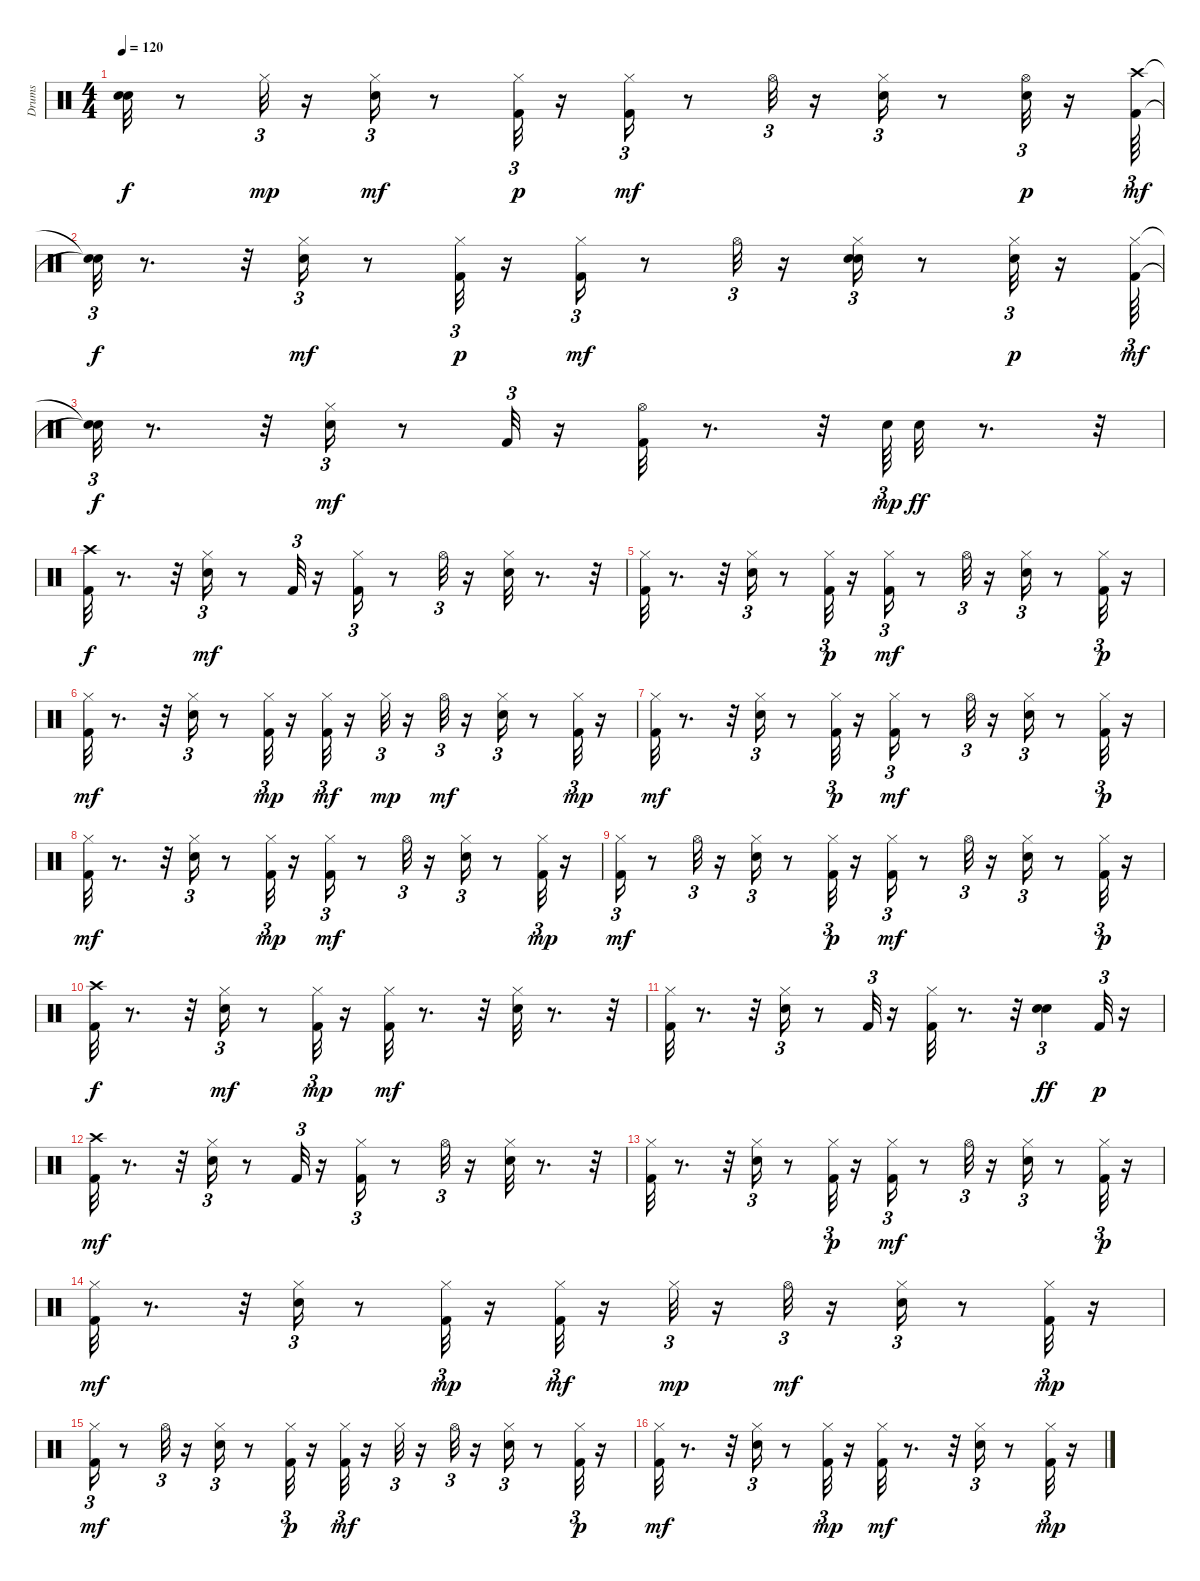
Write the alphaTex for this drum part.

\track ("Drums" "Drums") {instrument percussion}
\staff {score}
\articulation defaults
\ts (4 4)
\tempo 120
\clef neutral
\ks c
("Snare (hit)"{t} "Snare (hit)"{t}).32{dy f} r.8 "Hi-Hat (closed)".32{tu (3 2) dy mp} r.16 ("Electric Snare (hit)" "Hi-Hat (closed)").16{tu (3 2) dy mf} r.8 ("Kick (hit) 2" "Hi-Hat (closed)").32{tu (3 2) dy p} r.16 ("Kick (hit) 2" "Hi-Hat (closed)").16{tu (3 2) dy mf} r.8 "Hi-Hat (open)".32{tu (3 2)} r.16 ("Electric Snare (hit)" "Hi-Hat (closed)").16{tu (3 2)} r.8 ("Electric Snare (hit)" "Hi-Hat (open)").32{tu (3 2) dy p} r.16 ("Kick (hit) 2" "Crash high (hit)").64{tu (3 2) dy mf} |
("Snare (hit)"{t} "Snare (hit)"{t}).32{tu (3 2) dy f} r.8{d} r.32 ("Electric Snare (hit)" "Hi-Hat (closed)").16{tu (3 2) dy mf} r.8 ("Kick (hit) 2" "Hi-Hat (closed)").32{tu (3 2) dy p} r.16 ("Kick (hit) 2" "Hi-Hat (closed)").16{tu (3 2) dy mf} r.8 "Hi-Hat (open)".32{tu (3 2)} r.16 ("Hand Clap (hit)" "Electric Snare (hit)" "Hi-Hat (closed)").16{tu (3 2)} r.8 ("Hand Clap (hit)" "Hi-Hat (closed)").32{tu (3 2) dy p} r.16 ("Kick (hit) 2" "Hi-Hat (closed)").64{tu (3 2) dy mf} |
("Snare (hit)"{t} "Snare (hit)"{t}).32{tu (3 2) dy f} r.8{d} r.32 ("Electric Snare (hit)" "Hi-Hat (closed)").16{tu (3 2) dy mf} r.8 "Kick (hit) 2".32{tu (3 2)} r.16 ("Kick (hit) 2" "Hi-Hat (open)").32 r.8{d} r.32 "Electric Snare (hit)".64{tu (3 2) dy mp} "Electric Snare (hit)".32{dy ff} r.8{d} r.32 |
("Kick (hit) 2" "Crash high (hit)").32{dy f} r.8{d} r.32 ("Electric Snare (hit)" "Hi-Hat (closed)").16{tu (3 2) dy mf} r.8 "Kick (hit) 2".32{tu (3 2)} r.16 ("Kick (hit) 2" "Hi-Hat (closed)").16{tu (3 2)} r.8 "Hi-Hat (open)".32{tu (3 2)} r.16 ("Electric Snare (hit)" "Hi-Hat (closed)").32 r.8{d} r.32 |
("Kick (hit) 2" "Hi-Hat (closed)").32 r.8{d} r.32 ("Electric Snare (hit)" "Hi-Hat (closed)").16{tu (3 2)} r.8 ("Kick (hit) 2" "Hi-Hat (closed)").32{tu (3 2) dy p} r.16 ("Kick (hit) 2" "Hi-Hat (closed)").16{tu (3 2) dy mf} r.8 "Hi-Hat (open)".32{tu (3 2)} r.16 ("Electric Snare (hit)" "Hi-Hat (closed)").16{tu (3 2)} r.8 ("Kick (hit) 2" "Hi-Hat (closed)").32{tu (3 2) dy p} r.16 |
("Kick (hit) 2" "Hi-Hat (closed)").32{dy mf} r.8{d} r.32 ("Electric Snare (hit)" "Hi-Hat (closed)").16{tu (3 2)} r.8 ("Kick (hit) 2" "Hi-Hat (closed)").32{tu (3 2) dy mp} r.16 ("Kick (hit) 2" "Hi-Hat (closed)").32{tu (3 2) dy mf} r.16 "Hi-Hat (closed)".32{tu (3 2) dy mp} r.16 "Hi-Hat (open)".32{tu (3 2) dy mf} r.16 ("Electric Snare (hit)" "Hi-Hat (closed)").16{tu (3 2)} r.8 ("Kick (hit) 2" "Hi-Hat (closed)").32{tu (3 2) dy mp} r.16 |
("Kick (hit) 2" "Hi-Hat (closed)").32{dy mf} r.8{d} r.32 ("Electric Snare (hit)" "Hi-Hat (closed)").16{tu (3 2)} r.8 ("Kick (hit) 2" "Hi-Hat (closed)").32{tu (3 2) dy p} r.16 ("Kick (hit) 2" "Hi-Hat (closed)").16{tu (3 2) dy mf} r.8 "Hi-Hat (open)".32{tu (3 2)} r.16 ("Electric Snare (hit)" "Hi-Hat (closed)").16{tu (3 2)} r.8 ("Kick (hit) 2" "Hi-Hat (closed)").32{tu (3 2) dy p} r.16 |
("Kick (hit) 2" "Hi-Hat (closed)").32{dy mf} r.8{d} r.32 ("Electric Snare (hit)" "Hi-Hat (closed)").16{tu (3 2)} r.8 ("Kick (hit) 2" "Hi-Hat (closed)").32{tu (3 2) dy mp} r.16 ("Kick (hit) 2" "Hi-Hat (closed)").16{tu (3 2) dy mf} r.8 "Hi-Hat (open)".32{tu (3 2)} r.16 ("Electric Snare (hit)" "Hi-Hat (closed)").16{tu (3 2)} r.8 ("Kick (hit) 2" "Hi-Hat (closed)").32{tu (3 2) dy mp} r.16 |
("Kick (hit) 2" "Hi-Hat (closed)").16{tu (3 2) dy mf} r.8 "Hi-Hat (open)".32{tu (3 2)} r.16 ("Electric Snare (hit)" "Hi-Hat (closed)").16{tu (3 2)} r.8 ("Kick (hit) 2" "Hi-Hat (closed)").32{tu (3 2) dy p} r.16 ("Kick (hit) 2" "Hi-Hat (closed)").16{tu (3 2) dy mf} r.8 "Hi-Hat (open)".32{tu (3 2)} r.16 ("Electric Snare (hit)" "Hi-Hat (closed)").16{tu (3 2)} r.8 ("Kick (hit) 2" "Hi-Hat (closed)").32{tu (3 2) dy p} r.16 |
("Kick (hit) 2" "Crash high (hit)").32{dy f} r.8{d} r.32 ("Electric Snare (hit)" "Hi-Hat (closed)").16{tu (3 2) dy mf} r.8 ("Kick (hit) 2" "Hi-Hat (closed)").32{tu (3 2) dy mp} r.16 ("Kick (hit) 2" "Hi-Hat (closed)").32{dy mf} r.8{d} r.32 ("Electric Snare (hit)" "Hi-Hat (closed)").32 r.8{d} r.32 |
("Kick (hit) 2" "Hi-Hat (closed)").32 r.8{d} r.32 ("Electric Snare (hit)" "Hi-Hat (closed)").16{tu (3 2)} r.8 "Kick (hit) 2".32{tu (3 2)} r.16 ("Kick (hit) 2" "Hi-Hat (closed)").32 r.8{d} r.32 ("Electric Snare (hit)" "Electric Snare (hit)").4{tu (3 2) dy ff} "Kick (hit) 2".32{tu (3 2) dy p} r.16 |
("Kick (hit) 2" "Crash high (hit)").32{dy mf} r.8{d} r.32 ("Electric Snare (hit)" "Hi-Hat (closed)").16{tu (3 2)} r.8 "Kick (hit) 2".32{tu (3 2)} r.16 ("Kick (hit) 2" "Hi-Hat (closed)").16{tu (3 2)} r.8 "Hi-Hat (open)".32{tu (3 2)} r.16 ("Electric Snare (hit)" "Hi-Hat (closed)").32 r.8{d} r.32 |
("Kick (hit) 2" "Hi-Hat (closed)").32 r.8{d} r.32 ("Electric Snare (hit)" "Hi-Hat (closed)").16{tu (3 2)} r.8 ("Kick (hit) 2" "Hi-Hat (closed)").32{tu (3 2) dy p} r.16 ("Kick (hit) 2" "Hi-Hat (closed)").16{tu (3 2) dy mf} r.8 "Hi-Hat (open)".32{tu (3 2)} r.16 ("Electric Snare (hit)" "Hi-Hat (closed)").16{tu (3 2)} r.8 ("Kick (hit) 2" "Hi-Hat (closed)").32{tu (3 2) dy p} r.16 |
("Kick (hit) 2" "Hi-Hat (closed)").32{dy mf} r.8{d} r.32 ("Electric Snare (hit)" "Hi-Hat (closed)").16{tu (3 2)} r.8 ("Kick (hit) 2" "Hi-Hat (closed)").32{tu (3 2) dy mp} r.16 ("Kick (hit) 2" "Hi-Hat (closed)").32{tu (3 2) dy mf} r.16 "Hi-Hat (closed)".32{tu (3 2) dy mp} r.16 "Hi-Hat (open)".32{tu (3 2) dy mf} r.16 ("Electric Snare (hit)" "Hi-Hat (closed)").16{tu (3 2)} r.8 ("Kick (hit) 2" "Hi-Hat (closed)").32{tu (3 2) dy mp} r.16 |
("Kick (hit) 2" "Hi-Hat (closed)").16{tu (3 2) dy mf} r.8 "Hi-Hat (open)".32{tu (3 2)} r.16 ("Electric Snare (hit)" "Hi-Hat (closed)").16{tu (3 2)} r.8 ("Kick (hit) 2" "Hi-Hat (closed)").32{tu (3 2) dy p} r.16 ("Kick (hit) 2" "Hi-Hat (closed)").32{tu (3 2) dy mf} r.16 "Hi-Hat (closed)".32{tu (3 2)} r.16 "Hi-Hat (open)".32{tu (3 2)} r.16 ("Electric Snare (hit)" "Hi-Hat (closed)").16{tu (3 2)} r.8 ("Kick (hit) 2" "Hi-Hat (closed)").32{tu (3 2) dy p} r.16 |
("Kick (hit) 2" "Hi-Hat (closed)").32{dy mf} r.8{d} r.32 ("Electric Snare (hit)" "Hi-Hat (closed)").16{tu (3 2)} r.8 ("Kick (hit) 2" "Hi-Hat (closed)").32{tu (3 2) dy mp} r.16 ("Kick (hit) 2" "Hi-Hat (closed)").32{dy mf} r.8{d} r.32 ("Electric Snare (hit)" "Hi-Hat (closed)").16{tu (3 2)} r.8 ("Kick (hit) 2" "Hi-Hat (closed)").32{tu (3 2) dy mp} r.16
